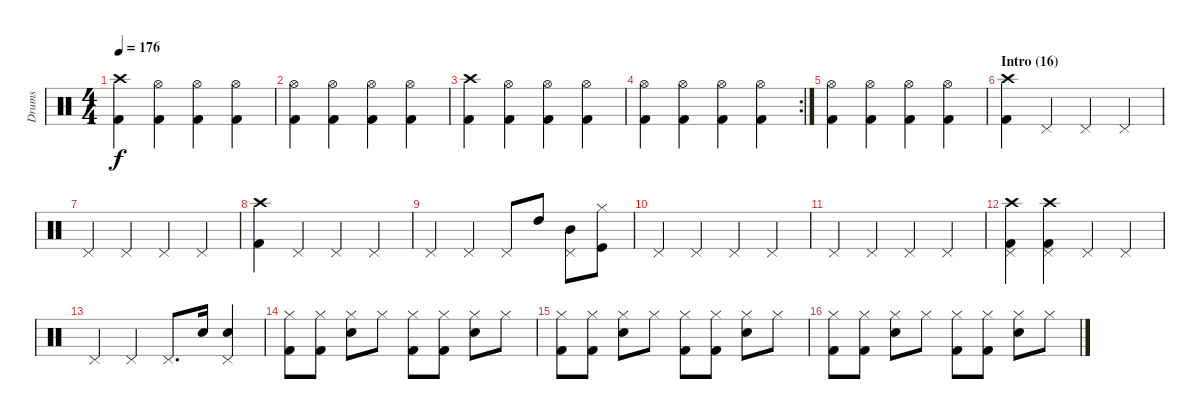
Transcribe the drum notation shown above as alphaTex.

\track ("Drums" "Drums") {instrument percussion}
\staff {score}
\articulation defaults
\ts (4 4)
\tempo 176
\clef neutral
\ks c
("Crash high (hit)" "Kick (hit) 2").4{dy f} ("Hi-Hat (open)" "Kick (hit) 2").4 ("Hi-Hat (open)" "Kick (hit) 2").4 ("Hi-Hat (open)" "Kick (hit) 2").4 |
("Hi-Hat (open)" "Kick (hit) 2").4 ("Hi-Hat (open)" "Kick (hit) 2").4 ("Hi-Hat (open)" "Kick (hit) 2").4 ("Hi-Hat (open)" "Kick (hit) 2").4 |
("Crash high (hit)" "Kick (hit) 2").4 ("Hi-Hat (open)" "Kick (hit) 2").4 ("Hi-Hat (open)" "Kick (hit) 2").4 ("Hi-Hat (open)" "Kick (hit) 2").4 |
\rc 2
("Hi-Hat (open)" "Kick (hit) 2").4 ("Hi-Hat (open)" "Kick (hit) 2").4 ("Hi-Hat (open)" "Kick (hit) 2").4 ("Hi-Hat (open)" "Kick (hit) 2").4 |
("Hi-Hat (open)" "Kick (hit) 2").4 ("Hi-Hat (open)" "Kick (hit) 2").4 ("Hi-Hat (open)" "Kick (hit) 2").4 ("Hi-Hat (open)" "Kick (hit) 2").4 |
\section ("" "Intro (16)")
("Crash high (hit)" "Kick (hit) 2").4 "Pedal Hi-Hat (hit)".4 "Pedal Hi-Hat (hit)".4 "Pedal Hi-Hat (hit)".4 |
"Pedal Hi-Hat (hit)".4 "Pedal Hi-Hat (hit)".4 "Pedal Hi-Hat (hit)".4 "Pedal Hi-Hat (hit)".4 |
("Crash high (hit)" "Kick (hit) 2").4 "Pedal Hi-Hat (hit)".4 "Pedal Hi-Hat (hit)".4 "Pedal Hi-Hat (hit)".4 |
"Pedal Hi-Hat (hit)".4 "Pedal Hi-Hat (hit)".4 "Pedal Hi-Hat (hit)".8 "High Tom (hit)".8 ("Mid Tom (hit)" "Pedal Hi-Hat (hit)").8 ("Hi-Hat (closed)" "Kick (hit)").8 |
"Pedal Hi-Hat (hit)".4 "Pedal Hi-Hat (hit)".4 "Pedal Hi-Hat (hit)".4 "Pedal Hi-Hat (hit)".4 |
"Pedal Hi-Hat (hit)".4 "Pedal Hi-Hat (hit)".4 "Pedal Hi-Hat (hit)".4 "Pedal Hi-Hat (hit)".4 |
("Crash high (hit)" "Kick (hit) 2" "Pedal Hi-Hat (hit)").4 ("Crash high (hit)" "Kick (hit) 2" "Pedal Hi-Hat (hit)").4 "Pedal Hi-Hat (hit)".4 "Pedal Hi-Hat (hit)".4 |
"Pedal Hi-Hat (hit)".4 "Pedal Hi-Hat (hit)".4 "Pedal Hi-Hat (hit)".8{d} "Snare (hit) 2".16 ("Snare (hit) 2" "Pedal Hi-Hat (hit)").4 |
("Hi-Hat (closed)" "Kick (hit) 2").8 ("Hi-Hat (closed)" "Kick (hit) 2").8 ("Hi-Hat (closed)" "Snare (hit) 2").8 "Hi-Hat (closed)".8 ("Hi-Hat (closed)" "Kick (hit) 2").8 ("Hi-Hat (closed)" "Kick (hit) 2").8 ("Hi-Hat (closed)" "Snare (hit) 2").8 "Hi-Hat (closed)".8 |
("Hi-Hat (closed)" "Kick (hit) 2").8 ("Hi-Hat (closed)" "Kick (hit) 2").8 ("Hi-Hat (closed)" "Snare (hit) 2").8 "Hi-Hat (closed)".8 ("Hi-Hat (closed)" "Kick (hit) 2").8 ("Hi-Hat (closed)" "Kick (hit) 2").8 ("Hi-Hat (closed)" "Snare (hit) 2").8 "Hi-Hat (closed)".8 |
("Hi-Hat (closed)" "Kick (hit) 2").8 ("Hi-Hat (closed)" "Kick (hit) 2").8 ("Hi-Hat (closed)" "Snare (hit) 2").8 "Hi-Hat (closed)".8 ("Hi-Hat (closed)" "Kick (hit) 2").8 ("Hi-Hat (closed)" "Kick (hit) 2").8 ("Hi-Hat (closed)" "Snare (hit) 2").8 "Hi-Hat (closed)".8
